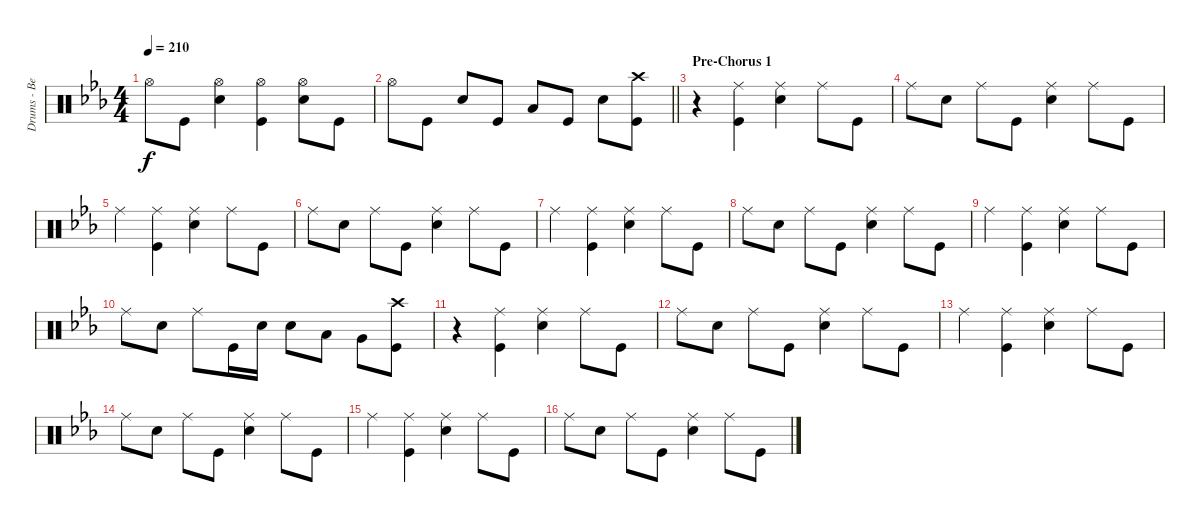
\track ("Drums - Ben Johnston" "Drums - Be") {instrument percussion}
\staff {score}
\articulation defaults
\ts (4 4)
\tempo 210
\clef neutral
\ks cminor "Hi-Hat (open)".8{dy f} "Kick (hit)".8
("Hi-Hat (open)" "Snare (hit) 2").4 ("Hi-Hat (open)" "Kick (hit)").4 ("Hi-Hat (open)" "Snare (hit) 2").8 "Kick (hit)".8 |
\barLineRight lightlight "Hi-Hat (open)".8 "Kick (hit)".8 "Snare (hit) 2".8 "Kick (hit)".8 "Low Tom (hit)".8 "Kick (hit)".8 "Snare (hit) 2".8
("Crash high (hit)" "Kick (hit)").8 |
\section ("" "Pre-Chorus 1")
r.4 ("Ride (middle)" "Kick (hit)").4 ("Ride (middle)" "Snare (hit) 2").4 "Ride (middle)".8 "Kick (hit)".8 |
"Ride (middle)".8 "Snare (hit) 2".8 "Ride (middle)".8 "Kick (hit)".8 ("Ride (middle)" "Snare (hit) 2").4 "Ride (middle)".8 "Kick (hit)".8 |
"Ride (middle)".4 ("Ride (middle)" "Kick (hit)").4 ("Ride (middle)" "Snare (hit) 2").4 "Ride (middle)".8 "Kick (hit)".8 |
"Ride (middle)".8 "Snare (hit) 2".8 "Ride (middle)".8 "Kick (hit)".8 ("Ride (middle)" "Snare (hit) 2").4 "Ride (middle)".8 "Kick (hit)".8 |
"Ride (middle)".4 ("Ride (middle)" "Kick (hit)").4 ("Ride (middle)" "Snare (hit) 2").4 "Ride (middle)".8 "Kick (hit)".8 |
"Ride (middle)".8 "Snare (hit) 2".8 "Ride (middle)".8 "Kick (hit)".8 ("Ride (middle)" "Snare (hit) 2").4 "Ride (middle)".8 "Kick (hit)".8 |
"Ride (middle)".4 ("Ride (middle)" "Kick (hit)").4 ("Ride (middle)" "Snare (hit) 2").4 "Ride (middle)".8 "Kick (hit)".8 |
"Ride (middle)".8 "Snare (hit) 2".8 "Ride (middle)".8 "Kick (hit)".16 "Snare (hit) 2".16 "Snare (hit) 2".8 "Low Tom (hit)".8 "Very Low Tom (hit)".8 ("Crash high (hit)" "Kick (hit)").8 |
r.4 ("Ride (middle)" "Kick (hit)").4 ("Ride (middle)" "Snare (hit) 2").4 "Ride (middle)".8 "Kick (hit)".8 |
"Ride (middle)".8 "Snare (hit) 2".8 "Ride (middle)".8 "Kick (hit)".8 ("Ride (middle)" "Snare (hit) 2").4 "Ride (middle)".8 "Kick (hit)".8 |
"Ride (middle)".4 ("Ride (middle)" "Kick (hit)").4 ("Ride (middle)" "Snare (hit) 2").4 "Ride (middle)".8 "Kick (hit)".8 |
"Ride (middle)".8 "Snare (hit) 2".8 "Ride (middle)".8 "Kick (hit)".8 ("Ride (middle)" "Snare (hit) 2").4 "Ride (middle)".8 "Kick (hit)".8 |
"Ride (middle)".4 ("Ride (middle)" "Kick (hit)").4 ("Ride (middle)" "Snare (hit) 2").4 "Ride (middle)".8 "Kick (hit)".8 |
"Ride (middle)".8 "Snare (hit) 2".8 "Ride (middle)".8 "Kick (hit)".8 ("Ride (middle)" "Snare (hit) 2").4 "Ride (middle)".8 "Kick (hit)".8
